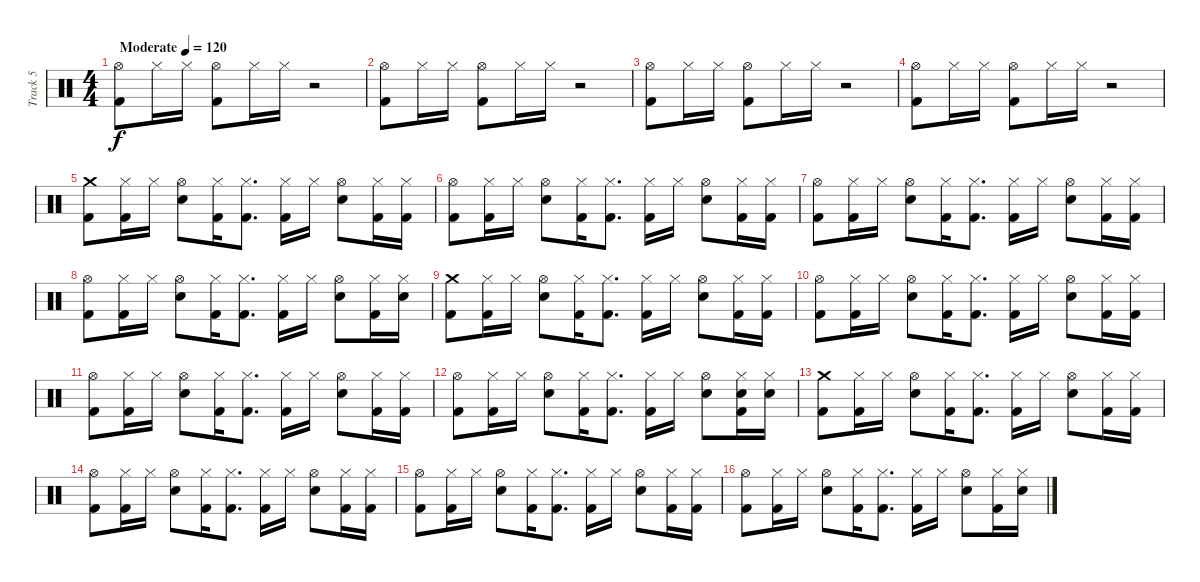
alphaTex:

\track ("Track 5" "Track 5") {instrument percussion}
\staff {score}
\articulation defaults
\ts (4 4)
\tempo (120 "Moderate")
\clef neutral
\ks c
("Hi-Hat (open)" "Kick (hit) 2").8{dy f} "Hi-Hat (closed)".16 "Hi-Hat (closed)".16 ("Hi-Hat (open)" "Kick (hit) 2").8 "Hi-Hat (closed)".16 "Hi-Hat (closed)".16 r.2 |
("Hi-Hat (open)" "Kick (hit) 2").8 "Hi-Hat (closed)".16 "Hi-Hat (closed)".16 ("Hi-Hat (open)" "Kick (hit) 2").8 "Hi-Hat (closed)".16 "Hi-Hat (closed)".16 r.2 |
("Hi-Hat (open)" "Kick (hit) 2").8 "Hi-Hat (closed)".16 "Hi-Hat (closed)".16 ("Hi-Hat (open)" "Kick (hit) 2").8 "Hi-Hat (closed)".16 "Hi-Hat (closed)".16 r.2 |
("Hi-Hat (open)" "Kick (hit) 2").8 "Hi-Hat (closed)".16 "Hi-Hat (closed)".16 ("Hi-Hat (open)" "Kick (hit) 2").8 "Hi-Hat (closed)".16 "Hi-Hat (closed)".16 r.2 |
("Crash medium (hit)" "Kick (hit) 2").8 ("Hi-Hat (closed)" "Kick (hit) 2").16 "Hi-Hat (closed)".16 ("Hi-Hat (open)" "Snare (hit) 2").8 ("Hi-Hat (closed)" "Kick (hit) 2").16 ("Hi-Hat (closed)" "Kick (hit) 2").8{d} ("Hi-Hat (closed)" "Kick (hit) 2").16 "Hi-Hat (closed)".16 ("Hi-Hat (open)" "Snare (hit) 2").8 ("Hi-Hat (closed)" "Kick (hit) 2").16 ("Hi-Hat (closed)" "Kick (hit) 2").16 |
("Hi-Hat (open)" "Kick (hit) 2").8 ("Hi-Hat (closed)" "Kick (hit) 2").16 "Hi-Hat (closed)".16 ("Hi-Hat (open)" "Snare (hit) 2").8 ("Hi-Hat (closed)" "Kick (hit) 2").16 ("Hi-Hat (closed)" "Kick (hit) 2").8{d} ("Hi-Hat (closed)" "Kick (hit) 2").16 "Hi-Hat (closed)".16 ("Hi-Hat (open)" "Snare (hit) 2").8 ("Hi-Hat (closed)" "Kick (hit) 2").16 ("Hi-Hat (closed)" "Kick (hit) 2").16 |
("Hi-Hat (open)" "Kick (hit) 2").8 ("Hi-Hat (closed)" "Kick (hit) 2").16 "Hi-Hat (closed)".16 ("Hi-Hat (open)" "Snare (hit) 2").8 ("Hi-Hat (closed)" "Kick (hit) 2").16 ("Hi-Hat (closed)" "Kick (hit) 2").8{d} ("Hi-Hat (closed)" "Kick (hit) 2").16 "Hi-Hat (closed)".16 ("Hi-Hat (open)" "Snare (hit) 2").8 ("Hi-Hat (closed)" "Kick (hit) 2").16 ("Hi-Hat (closed)" "Kick (hit) 2").16 |
("Hi-Hat (open)" "Kick (hit) 2").8 ("Hi-Hat (closed)" "Kick (hit) 2").16 "Hi-Hat (closed)".16 ("Hi-Hat (open)" "Snare (hit) 2").8 ("Hi-Hat (closed)" "Kick (hit) 2").16 ("Hi-Hat (closed)" "Kick (hit) 2").8{d} ("Hi-Hat (closed)" "Kick (hit) 2").16 "Hi-Hat (closed)".16 ("Hi-Hat (open)" "Snare (hit) 2").8 ("Hi-Hat (closed)" "Kick (hit) 2").16 ("Hi-Hat (closed)" "Snare (hit) 2").16 |
("Crash medium (hit)" "Kick (hit) 2").8 ("Hi-Hat (closed)" "Kick (hit) 2").16 "Hi-Hat (closed)".16 ("Hi-Hat (open)" "Snare (hit) 2").8 ("Hi-Hat (closed)" "Kick (hit) 2").16 ("Hi-Hat (closed)" "Kick (hit) 2").8{d} ("Hi-Hat (closed)" "Kick (hit) 2").16 "Hi-Hat (closed)".16 ("Hi-Hat (open)" "Snare (hit) 2").8 ("Hi-Hat (closed)" "Kick (hit) 2").16 ("Hi-Hat (closed)" "Kick (hit) 2").16 |
("Hi-Hat (open)" "Kick (hit) 2").8 ("Hi-Hat (closed)" "Kick (hit) 2").16 "Hi-Hat (closed)".16 ("Hi-Hat (open)" "Snare (hit) 2").8 ("Hi-Hat (closed)" "Kick (hit) 2").16 ("Hi-Hat (closed)" "Kick (hit) 2").8{d} ("Hi-Hat (closed)" "Kick (hit) 2").16 "Hi-Hat (closed)".16 ("Hi-Hat (open)" "Snare (hit) 2").8 ("Hi-Hat (closed)" "Kick (hit) 2").16 ("Hi-Hat (closed)" "Kick (hit) 2").16 |
("Hi-Hat (open)" "Kick (hit) 2").8 ("Hi-Hat (closed)" "Kick (hit) 2").16 "Hi-Hat (closed)".16 ("Hi-Hat (open)" "Snare (hit) 2").8 ("Hi-Hat (closed)" "Kick (hit) 2").16 ("Hi-Hat (closed)" "Kick (hit) 2").8{d} ("Hi-Hat (closed)" "Kick (hit) 2").16 "Hi-Hat (closed)".16 ("Hi-Hat (open)" "Snare (hit) 2").8 ("Hi-Hat (closed)" "Kick (hit) 2").16 ("Hi-Hat (closed)" "Kick (hit) 2").16 |
("Hi-Hat (open)" "Kick (hit) 2").8 ("Hi-Hat (closed)" "Kick (hit) 2").16 "Hi-Hat (closed)".16 ("Hi-Hat (open)" "Snare (hit) 2").8 ("Hi-Hat (closed)" "Kick (hit) 2").16 ("Hi-Hat (closed)" "Kick (hit) 2").8{d} ("Hi-Hat (closed)" "Kick (hit) 2").16 "Hi-Hat (closed)".16 ("Hi-Hat (open)" "Snare (hit) 2").8 ("Hi-Hat (closed)" "Snare (hit) 2" "Kick (hit) 2").16 ("Hi-Hat (closed)" "Snare (hit) 2").16 |
("Crash medium (hit)" "Kick (hit) 2").8 ("Hi-Hat (closed)" "Kick (hit) 2").16 "Hi-Hat (closed)".16 ("Hi-Hat (open)" "Snare (hit) 2").8 ("Hi-Hat (closed)" "Kick (hit) 2").16 ("Hi-Hat (closed)" "Kick (hit) 2").8{d} ("Hi-Hat (closed)" "Kick (hit) 2").16 "Hi-Hat (closed)".16 ("Hi-Hat (open)" "Snare (hit) 2").8 ("Hi-Hat (closed)" "Kick (hit) 2").16 ("Hi-Hat (closed)" "Kick (hit) 2").16 |
("Hi-Hat (open)" "Kick (hit) 2").8 ("Hi-Hat (closed)" "Kick (hit) 2").16 "Hi-Hat (closed)".16 ("Hi-Hat (open)" "Snare (hit) 2").8 ("Hi-Hat (closed)" "Kick (hit) 2").16 ("Hi-Hat (closed)" "Kick (hit) 2").8{d} ("Hi-Hat (closed)" "Kick (hit) 2").16 "Hi-Hat (closed)".16 ("Hi-Hat (open)" "Snare (hit) 2").8 ("Hi-Hat (closed)" "Kick (hit) 2").16 ("Hi-Hat (closed)" "Kick (hit) 2").16 |
("Hi-Hat (open)" "Kick (hit) 2").8 ("Hi-Hat (closed)" "Kick (hit) 2").16 "Hi-Hat (closed)".16 ("Hi-Hat (open)" "Snare (hit) 2").8 ("Hi-Hat (closed)" "Kick (hit) 2").16 ("Hi-Hat (closed)" "Kick (hit) 2").8{d} ("Hi-Hat (closed)" "Kick (hit) 2").16 "Hi-Hat (closed)".16 ("Hi-Hat (open)" "Snare (hit) 2").8 ("Hi-Hat (closed)" "Kick (hit) 2").16 ("Hi-Hat (closed)" "Kick (hit) 2").16 |
("Hi-Hat (open)" "Kick (hit) 2").8 ("Hi-Hat (closed)" "Kick (hit) 2").16 "Hi-Hat (closed)".16 ("Hi-Hat (open)" "Snare (hit) 2").8 ("Hi-Hat (closed)" "Kick (hit) 2").16 ("Hi-Hat (closed)" "Kick (hit) 2").8{d} ("Hi-Hat (closed)" "Kick (hit) 2").16 "Hi-Hat (closed)".16 ("Hi-Hat (open)" "Snare (hit) 2").8 ("Hi-Hat (closed)" "Kick (hit) 2").16 ("Hi-Hat (closed)" "Snare (hit) 2").16
